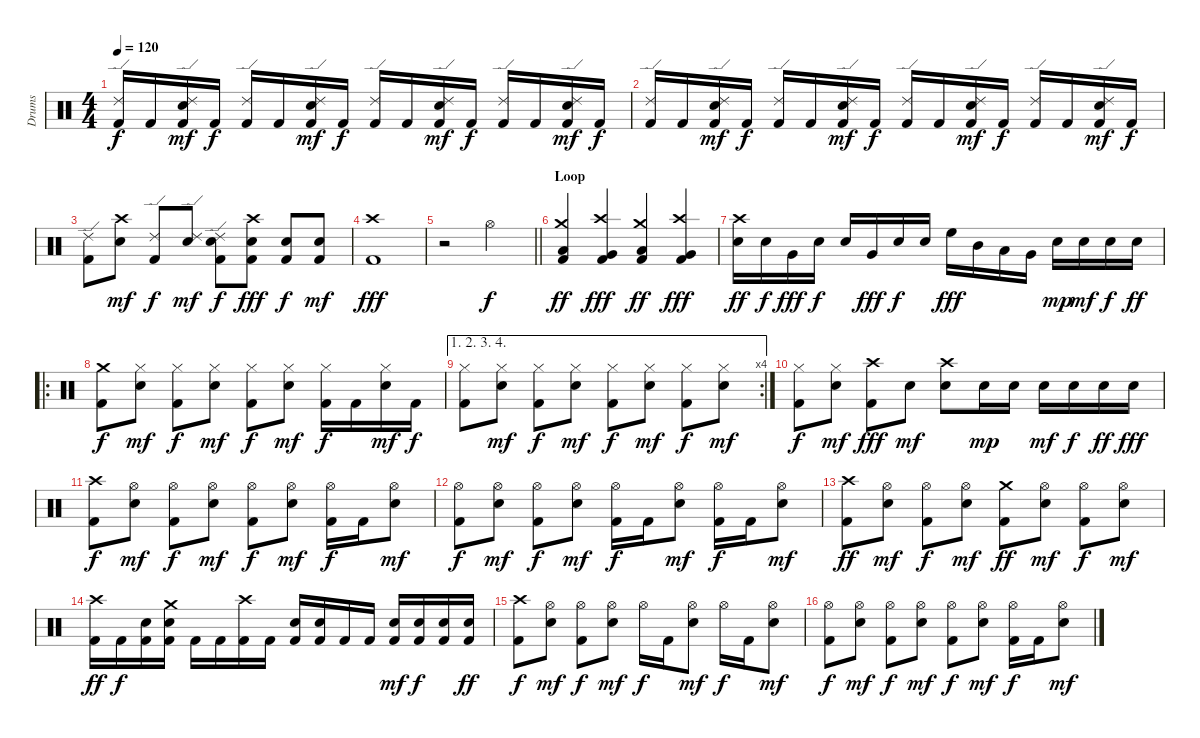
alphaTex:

\track ("Drums" "Drums") {instrument percussion}
\staff {score}
\articulation defaults
\ts (4 4)
\tempo 120
\clef neutral
\ks c
("Ride (edge) 2" "Kick (hit) 2").16{dy f} "Kick (hit) 2".16 ("Ride (edge) 2" "Snare (hit) 2" "Kick (hit) 2").16{dy mf} "Kick (hit) 2".16{dy f} ("Ride (edge) 2" "Kick (hit) 2").16 "Kick (hit) 2".16 ("Ride (edge) 2" "Snare (hit) 2" "Kick (hit) 2").16{dy mf} "Kick (hit) 2".16{dy f} ("Ride (edge) 2" "Kick (hit) 2").16 "Kick (hit) 2".16 ("Ride (edge) 2" "Snare (hit) 2" "Kick (hit) 2").16{dy mf} "Kick (hit) 2".16{dy f} ("Ride (edge) 2" "Kick (hit) 2").16 "Kick (hit) 2".16 ("Ride (edge) 2" "Snare (hit) 2" "Kick (hit) 2").16{dy mf} "Kick (hit) 2".16{dy f} |
("Ride (edge) 2" "Kick (hit) 2").16 "Kick (hit) 2".16 ("Ride (edge) 2" "Snare (hit) 2" "Kick (hit) 2").16{dy mf} "Kick (hit) 2".16{dy f} ("Ride (edge) 2" "Kick (hit) 2").16 "Kick (hit) 2".16 ("Ride (edge) 2" "Snare (hit) 2" "Kick (hit) 2").16{dy mf} "Kick (hit) 2".16{dy f} ("Ride (edge) 2" "Kick (hit) 2").16 "Kick (hit) 2".16 ("Ride (edge) 2" "Snare (hit) 2" "Kick (hit) 2").16{dy mf} "Kick (hit) 2".16{dy f} ("Ride (edge) 2" "Kick (hit) 2").16 "Kick (hit) 2".16 ("Ride (edge) 2" "Snare (hit) 2" "Kick (hit) 2").16{dy mf} "Kick (hit) 2".16{dy f} |
("Ride (edge) 2" "Kick (hit) 2").8 ("Crash high (hit)" "Snare (hit) 2").8{dy mf} ("Ride (edge) 2" "Kick (hit) 2").8{dy f} ("Ride (edge) 2" "Snare (hit) 2").8{dy mf} ("Ride (edge) 2" "Snare (hit) 2" "Kick (hit) 2").8{dy f} ("Crash high (hit)" "Snare (hit) 2" "Kick (hit) 2").8{dy fff} ("Snare (hit) 2" "Kick (hit) 2").8{dy f} ("Snare (hit) 2" "Kick (hit) 2").8{dy mf} |
("Crash high (hit)" "Kick (hit) 2").1{dy fff} |
\barLineRight lightlight
r.2 "Hi-Hat (open)".2{dy f} |
\section ("" "Loop")
("Crash medium (hit)" "Low Floor Tom (hit)" "Kick (hit) 2").4{dy ff balance 4} ("Crash high (hit)" "Very Low Tom (hit)" "Kick (hit) 2").4{dy fff balance 12} ("Crash medium (hit)" "Low Floor Tom (hit)" "Kick (hit) 2").4{dy ff balance 4} ("Crash high (hit)" "Very Low Tom (hit)" "Kick (hit) 2").4{dy fff balance 12} |
("Crash high (hit)" "Snare (hit) 2").16{dy ff balance 8} "Snare (hit) 2".16{dy f} "Very Low Tom (hit)".16{dy fff} "Snare (hit) 2".16{dy f} "Snare (hit) 2".16 "Very Low Tom (hit)".16{dy fff} "Snare (hit) 2".16{dy f} "Snare (hit) 2".16 "High Floor Tom (hit)".16{dy fff} "Mid Tom (hit)".16 "Low Tom (hit)".16 "Very Low Tom (hit)".16 "Snare (hit) 2".16{dy mp} "Snare (hit) 2".16{dy mf} "Snare (hit) 2".16{dy f} "Snare (hit) 2".16{dy ff} |
\ro
("Crash medium (hit)" "Kick (hit) 2").8{dy f} ("Hi-Hat (closed)" "Snare (hit) 2").8{dy mf} ("Hi-Hat (closed)" "Kick (hit) 2").8{dy f} ("Hi-Hat (closed)" "Snare (hit) 2").8{dy mf} ("Hi-Hat (closed)" "Kick (hit) 2").8{dy f} ("Hi-Hat (closed)" "Snare (hit) 2").8{dy mf} ("Hi-Hat (closed)" "Kick (hit) 2").16{dy f} "Kick (hit) 2".16 ("Hi-Hat (closed)" "Snare (hit) 2").16{dy mf} "Kick (hit) 2".16{dy f} |
\ae (1 2 3 4)
\rc 4
("Hi-Hat (closed)" "Kick (hit) 2").8 ("Hi-Hat (closed)" "Snare (hit) 2").8{dy mf} ("Hi-Hat (closed)" "Kick (hit) 2").8{dy f} ("Hi-Hat (closed)" "Snare (hit) 2").8{dy mf} ("Hi-Hat (closed)" "Kick (hit) 2").8{dy f} ("Hi-Hat (closed)" "Snare (hit) 2").8{dy mf} ("Hi-Hat (closed)" "Kick (hit) 2").8{dy f} ("Hi-Hat (closed)" "Snare (hit) 2").8{dy mf} |
("Hi-Hat (closed)" "Kick (hit) 2").8{dy f} ("Hi-Hat (closed)" "Snare (hit) 2").8{dy mf} ("Crash high (hit)" "Kick (hit) 2").8{dy fff} "Snare (hit) 2".8{dy mf} ("Crash high (hit)" "Snare (hit) 2").8 "Snare (hit) 2".16{dy mp} "Snare (hit) 2".16 "Snare (hit) 2".16{dy mf} "Snare (hit) 2".16{dy f} "Snare (hit) 2".16{dy ff} "Snare (hit) 2".16{dy fff} |
("Crash high (hit)" "Kick (hit) 2").8{dy f} ("Hi-Hat (open)" "Snare (hit) 2").8{dy mf} ("Hi-Hat (open)" "Kick (hit) 2").8{dy f} ("Hi-Hat (open)" "Snare (hit) 2").8{dy mf} ("Hi-Hat (open)" "Kick (hit) 2").8{dy f} ("Hi-Hat (open)" "Snare (hit) 2").8{dy mf} ("Hi-Hat (open)" "Kick (hit) 2").16{dy f} "Kick (hit) 2".16 ("Hi-Hat (open)" "Snare (hit) 2").8{dy mf} |
("Hi-Hat (open)" "Kick (hit) 2").8{dy f} ("Hi-Hat (open)" "Snare (hit) 2").8{dy mf} ("Hi-Hat (open)" "Kick (hit) 2").8{dy f} ("Hi-Hat (open)" "Snare (hit) 2").8{dy mf} ("Hi-Hat (open)" "Kick (hit) 2").16{dy f} "Kick (hit) 2".16 ("Hi-Hat (open)" "Snare (hit) 2").8{dy mf} ("Hi-Hat (open)" "Kick (hit) 2").16{dy f} "Kick (hit) 2".16 ("Hi-Hat (open)" "Snare (hit) 2").8{dy mf} |
("Crash high (hit)" "Kick (hit) 2").8{dy ff} ("Hi-Hat (open)" "Snare (hit) 2").8{dy mf} ("Hi-Hat (open)" "Kick (hit) 2").8{dy f} ("Hi-Hat (open)" "Snare (hit) 2").8{dy mf} ("Crash medium (hit)" "Kick (hit) 2").8{dy ff} ("Hi-Hat (open)" "Snare (hit) 2").8{dy mf} ("Hi-Hat (open)" "Kick (hit) 2").8{dy f} ("Hi-Hat (open)" "Snare (hit) 2").8{dy mf} |
("Crash high (hit)" "Kick (hit) 2").16{dy ff} "Kick (hit) 2".16{dy f} ("Snare (hit) 2" "Kick (hit) 2").16 ("Crash medium (hit)" "Snare (hit) 2" "Kick (hit) 2").16 "Kick (hit) 2".16 "Kick (hit) 2".16 ("Crash high (hit)" "Kick (hit) 2").16 "Kick (hit) 2".16 ("Snare (hit) 2" "Kick (hit) 2").16 ("Snare (hit) 2" "Kick (hit) 2").16 "Kick (hit) 2".16 "Kick (hit) 2".16 ("Snare (hit) 2" "Kick (hit) 2").16{dy mf} ("Snare (hit) 2" "Kick (hit) 2").16{dy f} ("Snare (hit) 2" "Kick (hit) 2").16 ("Snare (hit) 2" "Kick (hit) 2").16{dy ff} |
("Crash high (hit)" "Kick (hit) 2").8{dy f} ("Hi-Hat (open)" "Snare (hit) 2").8{dy mf} ("Hi-Hat (open)" "Kick (hit) 2").8{dy f} ("Hi-Hat (open)" "Snare (hit) 2").8{dy mf} "Hi-Hat (open)".16{dy f} "Kick (hit) 2".16 ("Hi-Hat (open)" "Snare (hit) 2").8{dy mf} "Hi-Hat (open)".16{dy f} "Kick (hit) 2".16 ("Hi-Hat (open)" "Snare (hit) 2").8{dy mf} |
("Hi-Hat (open)" "Kick (hit) 2").8{dy f} ("Hi-Hat (open)" "Snare (hit) 2").8{dy mf} ("Hi-Hat (open)" "Kick (hit) 2").8{dy f} ("Hi-Hat (open)" "Snare (hit) 2").8{dy mf} ("Hi-Hat (open)" "Kick (hit) 2").8{dy f} ("Hi-Hat (open)" "Snare (hit) 2").8{dy mf} ("Hi-Hat (open)" "Kick (hit) 2").16{dy f} "Kick (hit) 2".16 ("Hi-Hat (open)" "Snare (hit) 2").8{dy mf}
